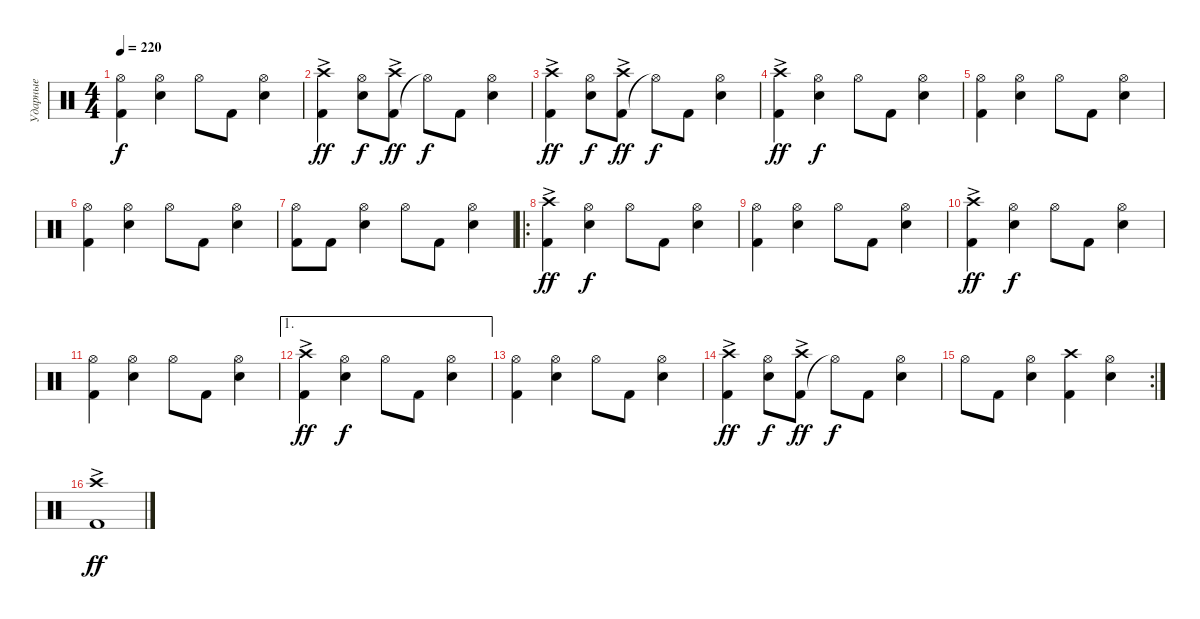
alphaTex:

\track ("Ударные" "Ударные") {instrument percussion}
\staff {score}
\articulation defaults
\ts (4 4)
\tempo 220
\clef neutral
\ks c
("Kick (hit) 2" "Hi-Hat (open)").4{dy f} ("Snare (hit) 2" "Hi-Hat (open)").4 "Hi-Hat (open)".8 "Kick (hit) 2".8 ("Snare (hit) 2" "Hi-Hat (open)").4 |
("Kick (hit) 2" "Crash high (hit)"{ac}).4{dy ff} ("Snare (hit) 2" "Hi-Hat (open)").8{dy f} ("Kick (hit) 2" "Crash high (hit)"{ac}).8{dy ff} "Hi-Hat (open)"{t}.8{dy f} "Kick (hit) 2".8 ("Snare (hit) 2" "Hi-Hat (open)").4 |
("Kick (hit) 2" "Crash high (hit)"{ac}).4{dy ff} ("Snare (hit) 2" "Hi-Hat (open)").8{dy f} ("Kick (hit) 2" "Crash high (hit)"{ac}).8{dy ff} "Hi-Hat (open)"{t}.8{dy f} "Kick (hit) 2".8 ("Snare (hit) 2" "Hi-Hat (open)").4 |
("Kick (hit) 2" "Crash high (hit)"{ac}).4{dy ff} ("Snare (hit) 2" "Hi-Hat (open)").4{dy f} "Hi-Hat (open)".8 "Kick (hit) 2".8 ("Snare (hit) 2" "Hi-Hat (open)").4 |
("Kick (hit) 2" "Hi-Hat (open)").4 ("Snare (hit) 2" "Hi-Hat (open)").4 "Hi-Hat (open)".8 "Kick (hit) 2".8 ("Snare (hit) 2" "Hi-Hat (open)").4 |
("Kick (hit) 2" "Hi-Hat (open)").4 ("Snare (hit) 2" "Hi-Hat (open)").4 "Hi-Hat (open)".8 "Kick (hit) 2".8 ("Snare (hit) 2" "Hi-Hat (open)").4 |
("Kick (hit) 2" "Hi-Hat (open)").8 "Kick (hit) 2".8 ("Snare (hit) 2" "Hi-Hat (open)").4 "Hi-Hat (open)".8 "Kick (hit) 2".8 ("Snare (hit) 2" "Hi-Hat (open)").4 |
\ro
("Kick (hit) 2" "Crash high (hit)"{ac}).4{dy ff} ("Snare (hit) 2" "Hi-Hat (open)").4{dy f} "Hi-Hat (open)".8 "Kick (hit) 2".8 ("Snare (hit) 2" "Hi-Hat (open)").4 |
("Kick (hit) 2" "Hi-Hat (open)").4 ("Snare (hit) 2" "Hi-Hat (open)").4 "Hi-Hat (open)".8 "Kick (hit) 2".8 ("Snare (hit) 2" "Hi-Hat (open)").4 |
("Kick (hit) 2" "Crash high (hit)"{ac}).4{dy ff} ("Snare (hit) 2" "Hi-Hat (open)").4{dy f} "Hi-Hat (open)".8 "Kick (hit) 2".8 ("Snare (hit) 2" "Hi-Hat (open)").4 |
("Kick (hit) 2" "Hi-Hat (open)").4 ("Snare (hit) 2" "Hi-Hat (open)").4 "Hi-Hat (open)".8 "Kick (hit) 2".8 ("Snare (hit) 2" "Hi-Hat (open)").4 |
\ae 1
("Kick (hit) 2" "Crash high (hit)"{ac}).4{dy ff} ("Snare (hit) 2" "Hi-Hat (open)").4{dy f} "Hi-Hat (open)".8 "Kick (hit) 2".8 ("Snare (hit) 2" "Hi-Hat (open)").4 |
("Kick (hit) 2" "Hi-Hat (open)").4 ("Snare (hit) 2" "Hi-Hat (open)").4 "Hi-Hat (open)".8 "Kick (hit) 2".8 ("Snare (hit) 2" "Hi-Hat (open)").4 |
("Kick (hit) 2" "Crash high (hit)"{ac}).4{dy ff} ("Snare (hit) 2" "Hi-Hat (open)").8{dy f} ("Kick (hit) 2" "Crash high (hit)"{ac}).8{dy ff} "Hi-Hat (open)"{t}.8{dy f} "Kick (hit) 2".8 ("Snare (hit) 2" "Hi-Hat (open)").4 |
\rc 2 "Hi-Hat (open)".8 "Kick (hit) 2".8
("Snare (hit) 2" "Hi-Hat (open)").4 ("Kick (hit) 2" "Crash high (hit)").4 ("Snare (hit) 2" "Hi-Hat (open)").4 |
("Kick (hit) 2" "Crash high (hit)"{ac}).1{dy ff}
